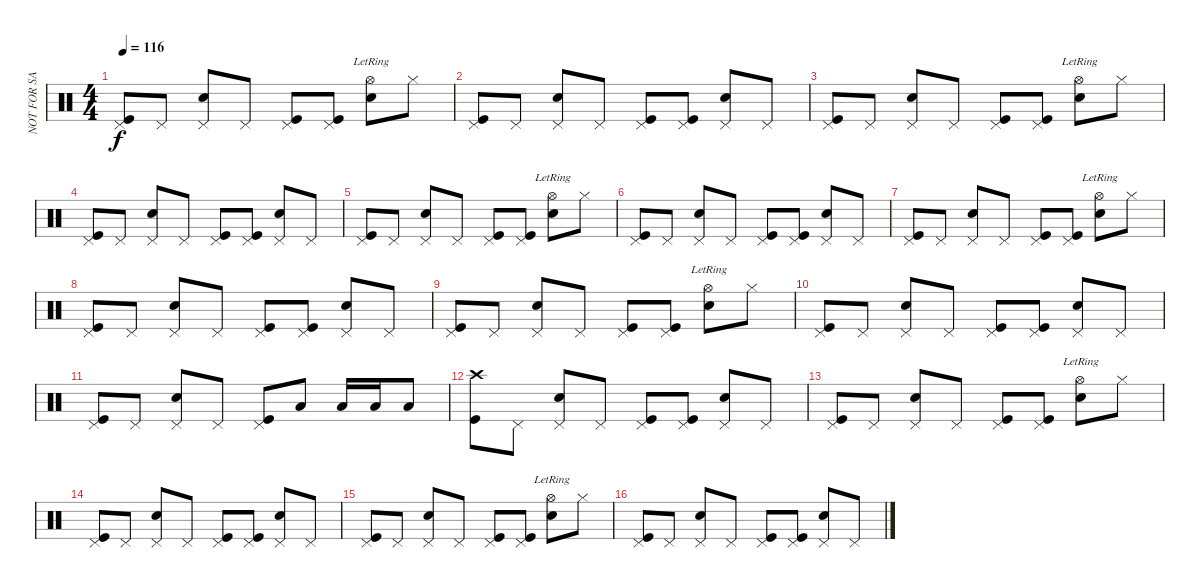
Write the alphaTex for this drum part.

\track ("NOT FOR SALE OR PROFIT" "NOT FOR SA") {instrument percussion}
\staff {score}
\articulation defaults
\ts (4 4)
\tempo 116
\clef neutral
\ks c
("Pedal Hi-Hat (hit)" "Kick (hit)").8{dy f} "Pedal Hi-Hat (hit)".8 ("Pedal Hi-Hat (hit)" "Snare (hit) 2").8 "Pedal Hi-Hat (hit)".8 ("Pedal Hi-Hat (hit)" "Kick (hit)").8 ("Pedal Hi-Hat (hit)" "Kick (hit)").8 ("Hi-Hat (open)"{lr} "Snare (hit) 2").8 "Hi-Hat (closed)".8 |
("Pedal Hi-Hat (hit)" "Kick (hit)").8 "Pedal Hi-Hat (hit)".8 ("Pedal Hi-Hat (hit)" "Snare (hit) 2").8 "Pedal Hi-Hat (hit)".8 ("Pedal Hi-Hat (hit)" "Kick (hit)").8 ("Pedal Hi-Hat (hit)" "Kick (hit)").8 ("Pedal Hi-Hat (hit)" "Snare (hit) 2").8 "Pedal Hi-Hat (hit)".8 |
("Pedal Hi-Hat (hit)" "Kick (hit)").8 "Pedal Hi-Hat (hit)".8 ("Pedal Hi-Hat (hit)" "Snare (hit) 2").8 "Pedal Hi-Hat (hit)".8 ("Pedal Hi-Hat (hit)" "Kick (hit)").8 ("Pedal Hi-Hat (hit)" "Kick (hit)").8 ("Hi-Hat (open)"{lr} "Snare (hit) 2").8 "Hi-Hat (closed)".8 |
("Pedal Hi-Hat (hit)" "Kick (hit)").8 "Pedal Hi-Hat (hit)".8 ("Pedal Hi-Hat (hit)" "Snare (hit) 2").8 "Pedal Hi-Hat (hit)".8 ("Pedal Hi-Hat (hit)" "Kick (hit)").8 ("Pedal Hi-Hat (hit)" "Kick (hit)").8 ("Pedal Hi-Hat (hit)" "Snare (hit) 2").8 "Pedal Hi-Hat (hit)".8 |
("Pedal Hi-Hat (hit)" "Kick (hit)").8 "Pedal Hi-Hat (hit)".8 ("Pedal Hi-Hat (hit)" "Snare (hit) 2").8 "Pedal Hi-Hat (hit)".8 ("Pedal Hi-Hat (hit)" "Kick (hit)").8 ("Pedal Hi-Hat (hit)" "Kick (hit)").8 ("Hi-Hat (open)"{lr} "Snare (hit) 2").8 "Hi-Hat (closed)".8 |
("Pedal Hi-Hat (hit)" "Kick (hit)").8 "Pedal Hi-Hat (hit)".8 ("Pedal Hi-Hat (hit)" "Snare (hit) 2").8 "Pedal Hi-Hat (hit)".8 ("Pedal Hi-Hat (hit)" "Kick (hit)").8 ("Pedal Hi-Hat (hit)" "Kick (hit)").8 ("Pedal Hi-Hat (hit)" "Snare (hit) 2").8 "Pedal Hi-Hat (hit)".8 |
("Pedal Hi-Hat (hit)" "Kick (hit)").8 "Pedal Hi-Hat (hit)".8 ("Pedal Hi-Hat (hit)" "Snare (hit) 2").8 "Pedal Hi-Hat (hit)".8 ("Pedal Hi-Hat (hit)" "Kick (hit)").8 ("Pedal Hi-Hat (hit)" "Kick (hit)").8 ("Hi-Hat (open)"{lr} "Snare (hit) 2").8 "Hi-Hat (closed)".8 |
("Pedal Hi-Hat (hit)" "Kick (hit)").8 "Pedal Hi-Hat (hit)".8 ("Pedal Hi-Hat (hit)" "Snare (hit) 2").8 "Pedal Hi-Hat (hit)".8 ("Pedal Hi-Hat (hit)" "Kick (hit)").8 ("Pedal Hi-Hat (hit)" "Kick (hit)").8 ("Pedal Hi-Hat (hit)" "Snare (hit) 2").8 "Pedal Hi-Hat (hit)".8 |
("Pedal Hi-Hat (hit)" "Kick (hit)").8 "Pedal Hi-Hat (hit)".8 ("Pedal Hi-Hat (hit)" "Snare (hit) 2").8 "Pedal Hi-Hat (hit)".8 ("Pedal Hi-Hat (hit)" "Kick (hit)").8 ("Pedal Hi-Hat (hit)" "Kick (hit)").8 ("Hi-Hat (open)"{lr} "Snare (hit) 2").8 "Hi-Hat (closed)".8 |
("Pedal Hi-Hat (hit)" "Kick (hit)").8 "Pedal Hi-Hat (hit)".8 ("Pedal Hi-Hat (hit)" "Snare (hit) 2").8 "Pedal Hi-Hat (hit)".8 ("Pedal Hi-Hat (hit)" "Kick (hit)").8 ("Pedal Hi-Hat (hit)" "Kick (hit)").8 ("Pedal Hi-Hat (hit)" "Snare (hit) 2").8 "Pedal Hi-Hat (hit)".8 |
("Pedal Hi-Hat (hit)" "Kick (hit)").8 "Pedal Hi-Hat (hit)".8 ("Pedal Hi-Hat (hit)" "Snare (hit) 2").8 "Pedal Hi-Hat (hit)".8 ("Pedal Hi-Hat (hit)" "Kick (hit)").8 "Low Tom (hit)".8 "Low Tom (hit)".16 "Low Tom (hit)".16 "Low Tom (hit)".8 |
("Crash high (hit)" "Kick (hit)").8 "Pedal Hi-Hat (hit)".8 ("Pedal Hi-Hat (hit)" "Snare (hit) 2").8 "Pedal Hi-Hat (hit)".8 ("Pedal Hi-Hat (hit)" "Kick (hit)").8 ("Pedal Hi-Hat (hit)" "Kick (hit)").8 ("Pedal Hi-Hat (hit)" "Snare (hit) 2").8 "Pedal Hi-Hat (hit)".8 |
("Pedal Hi-Hat (hit)" "Kick (hit)").8 "Pedal Hi-Hat (hit)".8 ("Pedal Hi-Hat (hit)" "Snare (hit) 2").8 "Pedal Hi-Hat (hit)".8 ("Pedal Hi-Hat (hit)" "Kick (hit)").8 ("Pedal Hi-Hat (hit)" "Kick (hit)").8 ("Hi-Hat (open)"{lr} "Snare (hit) 2").8 "Hi-Hat (closed)".8 |
("Pedal Hi-Hat (hit)" "Kick (hit)").8 "Pedal Hi-Hat (hit)".8 ("Pedal Hi-Hat (hit)" "Snare (hit) 2").8 "Pedal Hi-Hat (hit)".8 ("Pedal Hi-Hat (hit)" "Kick (hit)").8 ("Pedal Hi-Hat (hit)" "Kick (hit)").8 ("Pedal Hi-Hat (hit)" "Snare (hit) 2").8 "Pedal Hi-Hat (hit)".8 |
("Pedal Hi-Hat (hit)" "Kick (hit)").8 "Pedal Hi-Hat (hit)".8 ("Pedal Hi-Hat (hit)" "Snare (hit) 2").8 "Pedal Hi-Hat (hit)".8 ("Pedal Hi-Hat (hit)" "Kick (hit)").8 ("Pedal Hi-Hat (hit)" "Kick (hit)").8 ("Hi-Hat (open)"{lr} "Snare (hit) 2").8 "Hi-Hat (closed)".8 |
("Pedal Hi-Hat (hit)" "Kick (hit)").8 "Pedal Hi-Hat (hit)".8 ("Pedal Hi-Hat (hit)" "Snare (hit) 2").8 "Pedal Hi-Hat (hit)".8 ("Pedal Hi-Hat (hit)" "Kick (hit)").8 ("Pedal Hi-Hat (hit)" "Kick (hit)").8 ("Pedal Hi-Hat (hit)" "Snare (hit) 2").8 "Pedal Hi-Hat (hit)".8
